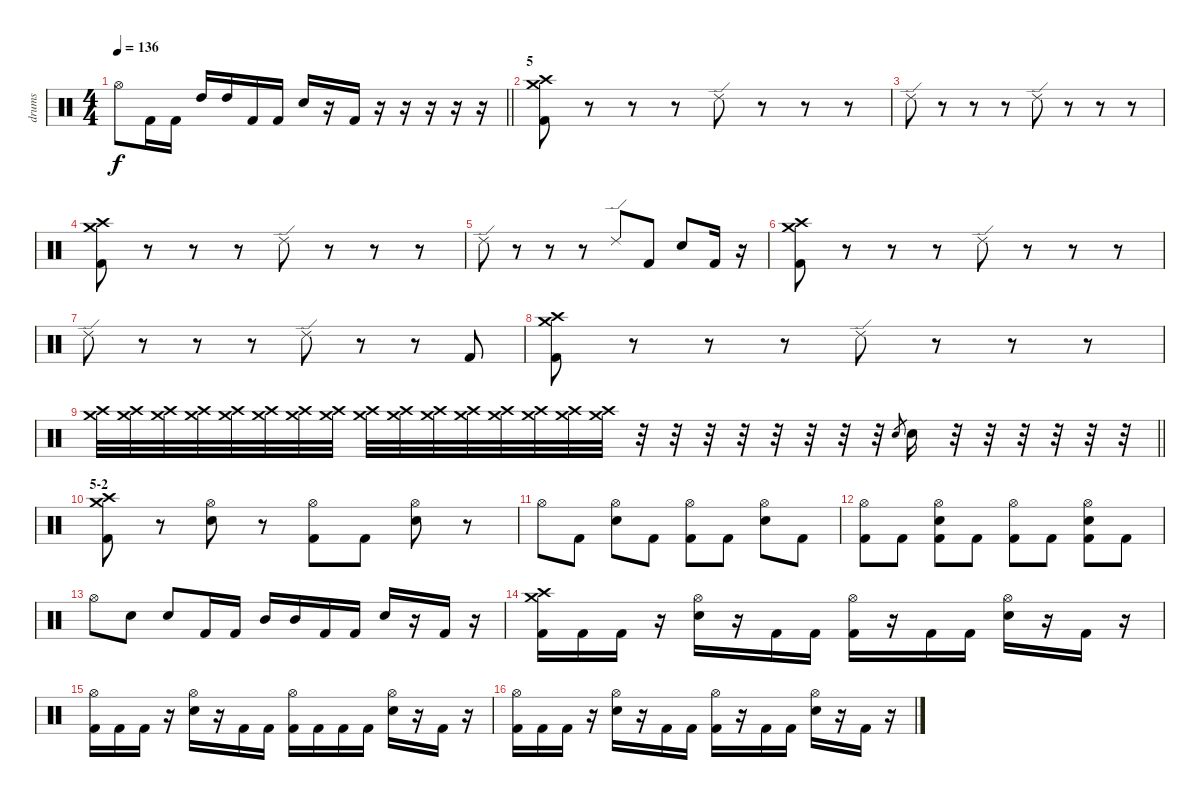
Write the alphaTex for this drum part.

\track ("drums" "drums") {instrument percussion}
\staff {score}
\articulation defaults
\ts (4 4)
\tempo 136
\clef neutral
\barLineRight lightlight
\ks c "Hi-Hat (open)".8{dy f} "Kick (hit) 2".16 "Kick (hit) 2".16 "High Tom (hit)".16 "High Tom (hit)".16 "Kick (hit) 2".16 "Kick (hit) 2".16 "Electric Snare (hit)".16
r.16 "Kick (hit) 2".16 r.16 r.16 r.16 r.16 r.16 |
\section ("" "5")
("Crash medium (hit)" "Crash high (hit)" "Kick (hit) 2").8 r.8 r.8 r.8 "Ride (edge) 2".8 r.8 r.8 r.8 |
"Ride (edge) 2".8 r.8 r.8 r.8 "Ride (edge) 2".8 r.8 r.8 r.8 |
("Crash medium (hit)" "Crash high (hit)" "Kick (hit) 2").8 r.8 r.8 r.8 "Ride (edge) 2".8 r.8 r.8 r.8 |
"Ride (edge) 2".8 r.8 r.8 r.8 "Ride (edge) 2".8 "Kick (hit) 2".8 "Electric Snare (hit)".8 "Kick (hit) 2".16 r.16 |
("Crash medium (hit)" "Crash high (hit)" "Kick (hit) 2").8 r.8 r.8 r.8 "Ride (edge) 2".8 r.8 r.8 r.8 |
"Ride (edge) 2".8 r.8 r.8 r.8 "Ride (edge) 2".8 r.8 r.8 "Kick (hit) 2".8 |
("Crash medium (hit)" "Crash high (hit)" "Kick (hit) 2").8 r.8 r.8 r.8 "Ride (edge) 2".8 r.8 r.8 r.8 |
\barLineRight lightlight
("Crash medium (hit)" "Crash high (hit)").32{volume 0} ("Crash medium (hit)" "Crash high (hit)").32{volume 16} ("Crash medium (hit)" "Crash high (hit)").32 ("Crash medium (hit)" "Crash high (hit)").32 ("Crash medium (hit)" "Crash high (hit)").32 ("Crash medium (hit)" "Crash high (hit)").32 ("Crash medium (hit)" "Crash high (hit)").32 ("Crash medium (hit)" "Crash high (hit)").32 ("Crash medium (hit)" "Crash high (hit)").32 ("Crash medium (hit)" "Crash high (hit)").32 ("Crash medium (hit)" "Crash high (hit)").32 ("Crash medium (hit)" "Crash high (hit)").32 ("Crash medium (hit)" "Crash high (hit)").32 ("Crash medium (hit)" "Crash high (hit)").32 ("Crash medium (hit)" "Crash high (hit)").32 ("Crash medium (hit)" "Crash high (hit)").32 r.32 r.32 r.32 r.32 r.32 r.32 r.32 r.32 "Electric Snare (hit)".8{gr} "Electric Snare (hit)".16 r.32 r.32 r.32 r.32 r.32 r.32 |
\section ("" "5-2")
("Crash medium (hit)" "Crash high (hit)" "Kick (hit) 2").8 r.8 ("Hi-Hat (open)" "Electric Snare (hit)").8 r.8 ("Hi-Hat (open)" "Kick (hit) 2").8 "Kick (hit) 2".8 ("Hi-Hat (open)" "Electric Snare (hit)").8 r.8 |
"Hi-Hat (open)".8 "Kick (hit) 2".8 ("Hi-Hat (open)" "Electric Snare (hit)").8 "Kick (hit) 2".8 ("Hi-Hat (open)" "Kick (hit) 2").8 "Kick (hit) 2".8 ("Hi-Hat (open)" "Electric Snare (hit)").8 "Kick (hit) 2".8 |
("Hi-Hat (open)" "Kick (hit) 2").8 "Kick (hit) 2".8 ("Hi-Hat (open)" "Electric Snare (hit)" "Kick (hit) 2").8 "Kick (hit) 2".8 ("Hi-Hat (open)" "Kick (hit) 2").8 "Kick (hit) 2".8 ("Hi-Hat (open)" "Electric Snare (hit)" "Kick (hit) 2").8 "Kick (hit) 2".8 |
"Hi-Hat (open)".8 "Electric Snare (hit)".8 "Electric Snare (hit)".8 "Kick (hit) 2".16 "Kick (hit) 2".16 "Mid Tom (hit)".16 "Mid Tom (hit)".16 "Kick (hit) 2".16 "Kick (hit) 2".16 "Electric Snare (hit)".16 r.16 "Kick (hit) 2".16 r.16 |
("Crash medium (hit)" "Crash high (hit)" "Kick (hit) 2").16 "Kick (hit) 2".16 "Kick (hit) 2".16 r.16 ("Hi-Hat (open)" "Electric Snare (hit)").16 r.16 "Kick (hit) 2".16 "Kick (hit) 2".16 ("Hi-Hat (open)" "Kick (hit) 2").16 r.16 "Kick (hit) 2".16 "Kick (hit) 2".16 ("Hi-Hat (open)" "Electric Snare (hit)").16 r.16 "Kick (hit) 2".16 r.16 |
("Hi-Hat (open)" "Kick (hit) 2").16 "Kick (hit) 2".16 "Kick (hit) 2".16 r.16 ("Hi-Hat (open)" "Electric Snare (hit)").16 r.16 "Kick (hit) 2".16 "Kick (hit) 2".16 ("Hi-Hat (open)" "Kick (hit) 2").16 "Kick (hit) 2".16 "Kick (hit) 2".16 "Kick (hit) 2".16 ("Hi-Hat (open)" "Electric Snare (hit)").16 r.16 "Kick (hit) 2".16 r.16 |
("Hi-Hat (open)" "Kick (hit) 2").16 "Kick (hit) 2".16 "Kick (hit) 2".16 r.16 ("Hi-Hat (open)" "Electric Snare (hit)").16 r.16 "Kick (hit) 2".16 "Kick (hit) 2".16 ("Hi-Hat (open)" "Kick (hit) 2").16 r.16 "Kick (hit) 2".16 "Kick (hit) 2".16 ("Hi-Hat (open)" "Electric Snare (hit)").16 r.16 "Kick (hit) 2".16 r.16
